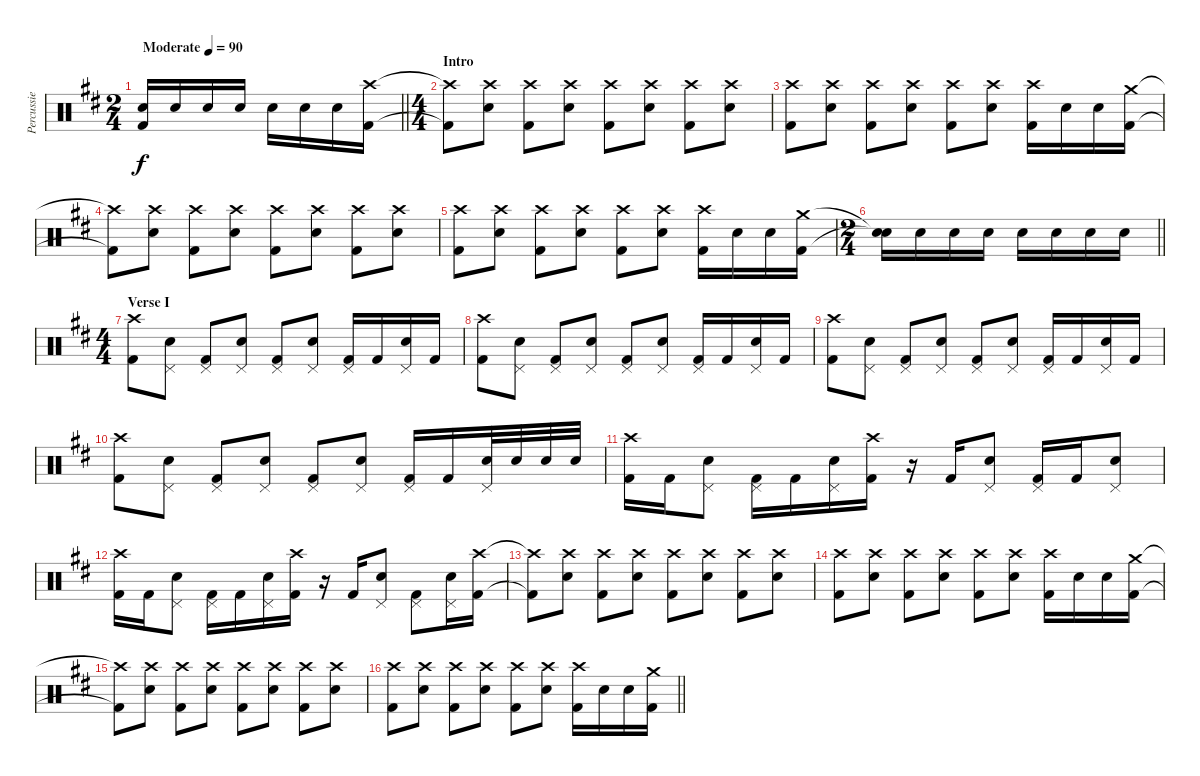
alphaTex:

\track ("Percussie" "Percussie") {instrument percussion}
\staff {score}
\articulation defaults
\ts (2 4)
\tempo (90 "Moderate")
\clef neutral
\barLineRight lightlight
\ks bminor
("Electric Snare (hit)" "Kick (hit) 2").16{dy f} "Electric Snare (hit)".16 "Electric Snare (hit)".16 "Electric Snare (hit)".16 "Electric Snare (hit)".16 "Electric Snare (hit)".16 "Electric Snare (hit)".16 ("Crash high (hit)" "Kick (hit) 2").16 |
\ts (4 4)
\section ("" "Intro")
("Crash high (hit)"{t} "Kick (hit) 2"{t}).8 ("Crash high (hit)" "Electric Snare (hit)").8 ("Crash high (hit)" "Kick (hit) 2").8 ("Crash high (hit)" "Electric Snare (hit)").8 ("Crash high (hit)" "Kick (hit) 2").8 ("Crash high (hit)" "Electric Snare (hit)").8 ("Crash high (hit)" "Kick (hit) 2").8 ("Crash high (hit)" "Electric Snare (hit)").8 |
("Crash high (hit)" "Kick (hit) 2").8 ("Crash high (hit)" "Electric Snare (hit)").8 ("Crash high (hit)" "Kick (hit) 2").8 ("Crash high (hit)" "Electric Snare (hit)").8 ("Crash high (hit)" "Kick (hit) 2").8 ("Crash high (hit)" "Electric Snare (hit)").8 ("Crash high (hit)" "Kick (hit) 2").16 "Electric Snare (hit)".16 "Electric Snare (hit)".16 ("Crash medium (hit)" "Kick (hit) 2").16 |
("Crash high (hit)"{t} "Kick (hit) 2"{t}).8 ("Crash high (hit)" "Electric Snare (hit)").8 ("Crash high (hit)" "Kick (hit) 2").8 ("Crash high (hit)" "Electric Snare (hit)").8 ("Crash high (hit)" "Kick (hit) 2").8 ("Crash high (hit)" "Electric Snare (hit)").8 ("Crash high (hit)" "Kick (hit) 2").8 ("Crash high (hit)" "Electric Snare (hit)").8 |
("Crash high (hit)" "Kick (hit) 2").8 ("Crash high (hit)" "Electric Snare (hit)").8 ("Crash high (hit)" "Kick (hit) 2").8 ("Crash high (hit)" "Electric Snare (hit)").8 ("Crash high (hit)" "Kick (hit) 2").8 ("Crash high (hit)" "Electric Snare (hit)").8 ("Crash high (hit)" "Kick (hit) 2").16 "Electric Snare (hit)".16 "Electric Snare (hit)".16 ("Crash medium (hit)" "Kick (hit) 2").16 |
\ts (2 4)
\barLineRight lightlight
("Snare (hit)"{t} "Snare (hit)"{t}).16 "Electric Snare (hit)".16 "Electric Snare (hit)".16 "Electric Snare (hit)".16 "Electric Snare (hit)".16 "Electric Snare (hit)".16 "Electric Snare (hit)".16 "Electric Snare (hit)".16 |
\ts (4 4)
\section ("" "Verse I")
("Crash high (hit)" "Kick (hit) 2").8 ("Pedal Hi-Hat (hit)" "Electric Snare (hit)").8 ("Pedal Hi-Hat (hit)" "Kick (hit) 2").8 ("Pedal Hi-Hat (hit)" "Electric Snare (hit)").8 ("Pedal Hi-Hat (hit)" "Kick (hit) 2").8 ("Pedal Hi-Hat (hit)" "Electric Snare (hit)").8 ("Pedal Hi-Hat (hit)" "Kick (hit) 2").16 "Kick (hit) 2".16 ("Pedal Hi-Hat (hit)" "Electric Snare (hit)").16 "Kick (hit) 2".16 |
("Crash high (hit)" "Kick (hit) 2").8 ("Pedal Hi-Hat (hit)" "Electric Snare (hit)").8 ("Pedal Hi-Hat (hit)" "Kick (hit) 2").8 ("Pedal Hi-Hat (hit)" "Electric Snare (hit)").8 ("Pedal Hi-Hat (hit)" "Kick (hit) 2").8 ("Pedal Hi-Hat (hit)" "Electric Snare (hit)").8 ("Pedal Hi-Hat (hit)" "Kick (hit) 2").16 "Kick (hit) 2".16 ("Pedal Hi-Hat (hit)" "Electric Snare (hit)").16 "Kick (hit) 2".16 |
("Crash high (hit)" "Kick (hit) 2").8 ("Pedal Hi-Hat (hit)" "Electric Snare (hit)").8 ("Pedal Hi-Hat (hit)" "Kick (hit) 2").8 ("Pedal Hi-Hat (hit)" "Electric Snare (hit)").8 ("Pedal Hi-Hat (hit)" "Kick (hit) 2").8 ("Pedal Hi-Hat (hit)" "Electric Snare (hit)").8 ("Pedal Hi-Hat (hit)" "Kick (hit) 2").16 "Kick (hit) 2".16 ("Pedal Hi-Hat (hit)" "Electric Snare (hit)").16 "Kick (hit) 2".16 |
("Crash high (hit)" "Kick (hit) 2").8 ("Pedal Hi-Hat (hit)" "Electric Snare (hit)").8 ("Pedal Hi-Hat (hit)" "Kick (hit) 2").8 ("Pedal Hi-Hat (hit)" "Electric Snare (hit)").8 ("Pedal Hi-Hat (hit)" "Kick (hit) 2").8 ("Pedal Hi-Hat (hit)" "Electric Snare (hit)").8 ("Pedal Hi-Hat (hit)" "Kick (hit) 2").16 "Kick (hit) 2".16 ("Pedal Hi-Hat (hit)" "Electric Snare (hit)").32 "Electric Snare (hit)".32 "Electric Snare (hit)".32 "Electric Snare (hit)".32 |
("Crash high (hit)" "Kick (hit) 2").16 "Kick (hit) 2".16 ("Pedal Hi-Hat (hit)" "Electric Snare (hit)").8 ("Pedal Hi-Hat (hit)" "Kick (hit) 2").16 "Kick (hit) 2".16 ("Pedal Hi-Hat (hit)" "Electric Snare (hit)").16 ("Crash high (hit)" "Kick (hit) 2").16 r.16 "Kick (hit) 2".16 ("Pedal Hi-Hat (hit)" "Electric Snare (hit)").8 ("Pedal Hi-Hat (hit)" "Kick (hit) 2").16 "Kick (hit) 2".16 ("Pedal Hi-Hat (hit)" "Electric Snare (hit)").8 |
("Crash high (hit)" "Kick (hit) 2").16 "Kick (hit) 2".16 ("Pedal Hi-Hat (hit)" "Electric Snare (hit)").8 ("Pedal Hi-Hat (hit)" "Kick (hit) 2").16 "Kick (hit) 2".16 ("Pedal Hi-Hat (hit)" "Electric Snare (hit)").16 ("Crash high (hit)" "Kick (hit) 2").16 r.16 "Kick (hit) 2".16 ("Pedal Hi-Hat (hit)" "Electric Snare (hit)").8 ("Pedal Hi-Hat (hit)" "Kick (hit) 2").8 ("Pedal Hi-Hat (hit)" "Electric Snare (hit)").16 ("Crash high (hit)" "Kick (hit) 2").16 |
("Crash high (hit)"{t} "Kick (hit) 2"{t}).8 ("Crash high (hit)" "Electric Snare (hit)").8 ("Crash high (hit)" "Kick (hit) 2").8 ("Crash high (hit)" "Electric Snare (hit)").8 ("Crash high (hit)" "Kick (hit) 2").8 ("Crash high (hit)" "Electric Snare (hit)").8 ("Crash high (hit)" "Kick (hit) 2").8 ("Crash high (hit)" "Electric Snare (hit)").8 |
("Crash high (hit)" "Kick (hit) 2").8 ("Crash high (hit)" "Electric Snare (hit)").8 ("Crash high (hit)" "Kick (hit) 2").8 ("Crash high (hit)" "Electric Snare (hit)").8 ("Crash high (hit)" "Kick (hit) 2").8 ("Crash high (hit)" "Electric Snare (hit)").8 ("Crash high (hit)" "Kick (hit) 2").16 "Electric Snare (hit)".16 "Electric Snare (hit)".16 ("Crash medium (hit)" "Kick (hit) 2").16 |
("Crash high (hit)"{t} "Kick (hit) 2"{t}).8 ("Crash high (hit)" "Electric Snare (hit)").8 ("Crash high (hit)" "Kick (hit) 2").8 ("Crash high (hit)" "Electric Snare (hit)").8 ("Crash high (hit)" "Kick (hit) 2").8 ("Crash high (hit)" "Electric Snare (hit)").8 ("Crash high (hit)" "Kick (hit) 2").8 ("Crash high (hit)" "Electric Snare (hit)").8 |
\barLineRight lightlight
("Crash high (hit)" "Kick (hit) 2").8 ("Crash high (hit)" "Electric Snare (hit)").8 ("Crash high (hit)" "Kick (hit) 2").8 ("Crash high (hit)" "Electric Snare (hit)").8 ("Crash high (hit)" "Kick (hit) 2").8 ("Crash high (hit)" "Electric Snare (hit)").8 ("Crash high (hit)" "Kick (hit) 2").16 "Electric Snare (hit)".16 "Electric Snare (hit)".16 ("Crash medium (hit)" "Kick (hit) 2").16
